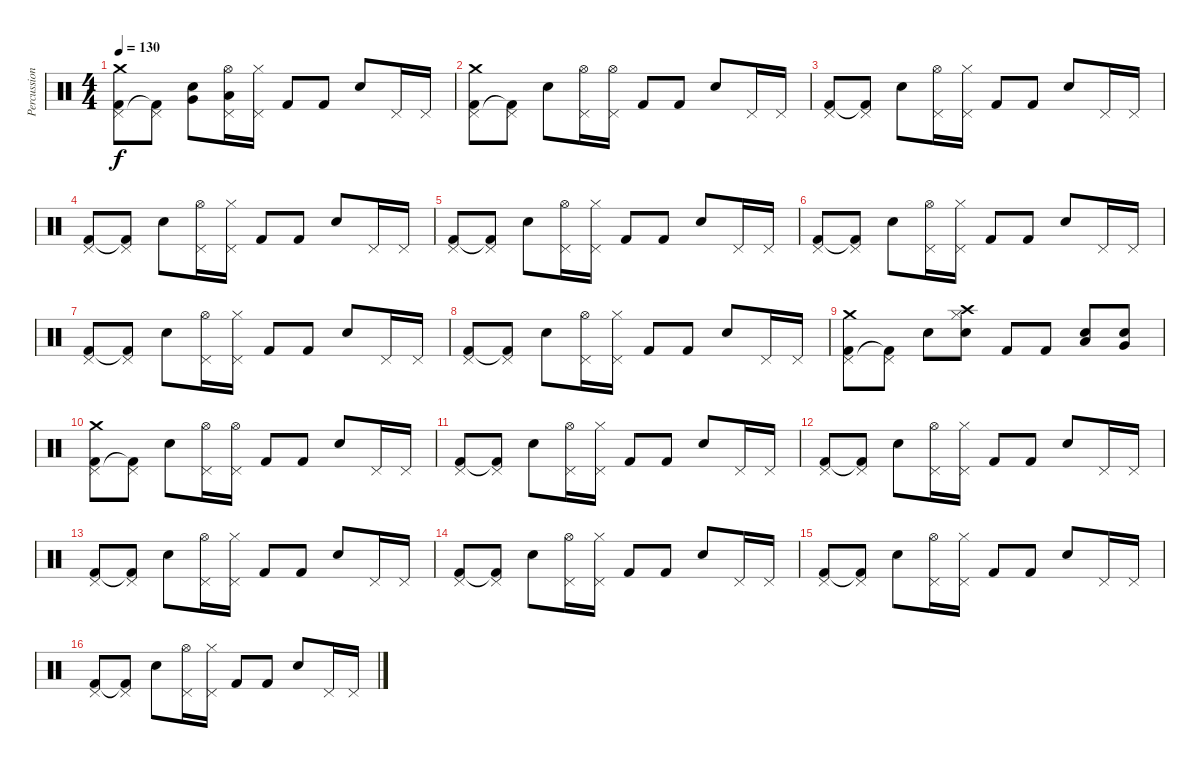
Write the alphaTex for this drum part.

\track ("Percussion" "Percussion") {instrument percussion}
\staff {score}
\articulation defaults
\ts (4 4)
\tempo 130
\clef neutral
\ks c
("Crash medium (hit)" "Pedal Hi-Hat (hit)" "Kick (hit) 2").8{dy f} ("Pedal Hi-Hat (hit)" "Kick (hit) 2"{t}).8 ("Very Low Tom (hit)" "Electric Snare (hit)").8 ("Low Floor Tom (hit)" "Hi-Hat (open)" "Pedal Hi-Hat (hit)").16 ("Hi-Hat (closed)" "Pedal Hi-Hat (hit)").16 "Kick (hit) 2".8 "Kick (hit) 2".8 "Electric Snare (hit)".8 "Pedal Hi-Hat (hit)".16 "Pedal Hi-Hat (hit)".16 |
("Crash medium (hit)" "Pedal Hi-Hat (hit)" "Kick (hit) 2").8 ("Pedal Hi-Hat (hit)" "Kick (hit) 2"{t}).8 "Electric Snare (hit)".8 ("Pedal Hi-Hat (hit)" "Hi-Hat (open)").16 ("Pedal Hi-Hat (hit)" "Hi-Hat (open)").16 "Kick (hit) 2".8 "Kick (hit) 2".8 "Electric Snare (hit)".8 "Pedal Hi-Hat (hit)".16 "Pedal Hi-Hat (hit)".16 |
("Pedal Hi-Hat (hit)" "Kick (hit) 2").8 ("Pedal Hi-Hat (hit)" "Kick (hit) 2"{t}).8 "Electric Snare (hit)".8 ("Hi-Hat (open)" "Pedal Hi-Hat (hit)").16 ("Hi-Hat (closed)" "Pedal Hi-Hat (hit)").16 "Kick (hit) 2".8 "Kick (hit) 2".8 "Electric Snare (hit)".8 "Pedal Hi-Hat (hit)".16 "Pedal Hi-Hat (hit)".16 |
("Pedal Hi-Hat (hit)" "Kick (hit) 2").8 ("Pedal Hi-Hat (hit)" "Kick (hit) 2"{t}).8 "Electric Snare (hit)".8 ("Hi-Hat (open)" "Pedal Hi-Hat (hit)").16 ("Hi-Hat (closed)" "Pedal Hi-Hat (hit)").16 "Kick (hit) 2".8 "Kick (hit) 2".8 "Electric Snare (hit)".8 "Pedal Hi-Hat (hit)".16 "Pedal Hi-Hat (hit)".16 |
("Pedal Hi-Hat (hit)" "Kick (hit) 2").8 ("Pedal Hi-Hat (hit)" "Kick (hit) 2"{t}).8 "Electric Snare (hit)".8 ("Hi-Hat (open)" "Pedal Hi-Hat (hit)").16 ("Hi-Hat (closed)" "Pedal Hi-Hat (hit)").16 "Kick (hit) 2".8 "Kick (hit) 2".8 "Electric Snare (hit)".8 "Pedal Hi-Hat (hit)".16 "Pedal Hi-Hat (hit)".16 |
("Pedal Hi-Hat (hit)" "Kick (hit) 2").8 ("Pedal Hi-Hat (hit)" "Kick (hit) 2"{t}).8 "Electric Snare (hit)".8 ("Hi-Hat (open)" "Pedal Hi-Hat (hit)").16 ("Hi-Hat (closed)" "Pedal Hi-Hat (hit)").16 "Kick (hit) 2".8 "Kick (hit) 2".8 "Electric Snare (hit)".8 "Pedal Hi-Hat (hit)".16 "Pedal Hi-Hat (hit)".16 |
("Pedal Hi-Hat (hit)" "Kick (hit) 2").8 ("Pedal Hi-Hat (hit)" "Kick (hit) 2"{t}).8 "Electric Snare (hit)".8 ("Hi-Hat (open)" "Pedal Hi-Hat (hit)").16 ("Hi-Hat (closed)" "Pedal Hi-Hat (hit)").16 "Kick (hit) 2".8 "Kick (hit) 2".8 "Electric Snare (hit)".8 "Pedal Hi-Hat (hit)".16 "Pedal Hi-Hat (hit)".16 |
("Pedal Hi-Hat (hit)" "Kick (hit) 2").8 ("Pedal Hi-Hat (hit)" "Kick (hit) 2"{t}).8 "Electric Snare (hit)".8 ("Hi-Hat (open)" "Pedal Hi-Hat (hit)").16 ("Hi-Hat (closed)" "Pedal Hi-Hat (hit)").16 "Kick (hit) 2".8 "Kick (hit) 2".8 "Electric Snare (hit)".8 "Pedal Hi-Hat (hit)".16 "Pedal Hi-Hat (hit)".16 |
("Crash medium (hit)" "Pedal Hi-Hat (hit)" "Kick (hit) 2").8 ("Pedal Hi-Hat (hit)" "Kick (hit) 2"{t}).8 "Electric Snare (hit)".8 ("Crash high (hit)" "Hi-Hat (closed)" "Electric Snare (hit)").8 "Kick (hit) 2".8 "Kick (hit) 2".8 ("Electric Snare (hit)" "Low Floor Tom (hit)").8 ("Electric Snare (hit)" "Very Low Tom (hit)").8 |
("Crash medium (hit)" "Pedal Hi-Hat (hit)" "Kick (hit) 2").8 ("Pedal Hi-Hat (hit)" "Kick (hit) 2"{t}).8 "Electric Snare (hit)".8 ("Pedal Hi-Hat (hit)" "Hi-Hat (open)").16 ("Pedal Hi-Hat (hit)" "Hi-Hat (open)").16 "Kick (hit) 2".8 "Kick (hit) 2".8 "Electric Snare (hit)".8 "Pedal Hi-Hat (hit)".16 "Pedal Hi-Hat (hit)".16 |
("Pedal Hi-Hat (hit)" "Kick (hit) 2").8 ("Pedal Hi-Hat (hit)" "Kick (hit) 2"{t}).8 "Electric Snare (hit)".8 ("Hi-Hat (open)" "Pedal Hi-Hat (hit)").16 ("Hi-Hat (closed)" "Pedal Hi-Hat (hit)").16 "Kick (hit) 2".8 "Kick (hit) 2".8 "Electric Snare (hit)".8 "Pedal Hi-Hat (hit)".16 "Pedal Hi-Hat (hit)".16 |
("Pedal Hi-Hat (hit)" "Kick (hit) 2").8 ("Pedal Hi-Hat (hit)" "Kick (hit) 2"{t}).8 "Electric Snare (hit)".8 ("Hi-Hat (open)" "Pedal Hi-Hat (hit)").16 ("Hi-Hat (closed)" "Pedal Hi-Hat (hit)").16 "Kick (hit) 2".8 "Kick (hit) 2".8 "Electric Snare (hit)".8 "Pedal Hi-Hat (hit)".16 "Pedal Hi-Hat (hit)".16 |
("Pedal Hi-Hat (hit)" "Kick (hit) 2").8 ("Pedal Hi-Hat (hit)" "Kick (hit) 2"{t}).8 "Electric Snare (hit)".8 ("Hi-Hat (open)" "Pedal Hi-Hat (hit)").16 ("Hi-Hat (closed)" "Pedal Hi-Hat (hit)").16 "Kick (hit) 2".8 "Kick (hit) 2".8 "Electric Snare (hit)".8 "Pedal Hi-Hat (hit)".16 "Pedal Hi-Hat (hit)".16 |
("Pedal Hi-Hat (hit)" "Kick (hit) 2").8 ("Pedal Hi-Hat (hit)" "Kick (hit) 2"{t}).8 "Electric Snare (hit)".8 ("Hi-Hat (open)" "Pedal Hi-Hat (hit)").16 ("Hi-Hat (closed)" "Pedal Hi-Hat (hit)").16 "Kick (hit) 2".8 "Kick (hit) 2".8 "Electric Snare (hit)".8 "Pedal Hi-Hat (hit)".16 "Pedal Hi-Hat (hit)".16 |
("Pedal Hi-Hat (hit)" "Kick (hit) 2").8 ("Pedal Hi-Hat (hit)" "Kick (hit) 2"{t}).8 "Electric Snare (hit)".8 ("Hi-Hat (open)" "Pedal Hi-Hat (hit)").16 ("Hi-Hat (closed)" "Pedal Hi-Hat (hit)").16 "Kick (hit) 2".8 "Kick (hit) 2".8 "Electric Snare (hit)".8 "Pedal Hi-Hat (hit)".16 "Pedal Hi-Hat (hit)".16 |
("Pedal Hi-Hat (hit)" "Kick (hit) 2").8 ("Pedal Hi-Hat (hit)" "Kick (hit) 2"{t}).8 "Electric Snare (hit)".8 ("Hi-Hat (open)" "Pedal Hi-Hat (hit)").16 ("Hi-Hat (closed)" "Pedal Hi-Hat (hit)").16 "Kick (hit) 2".8 "Kick (hit) 2".8 "Electric Snare (hit)".8 "Pedal Hi-Hat (hit)".16 "Pedal Hi-Hat (hit)".16
